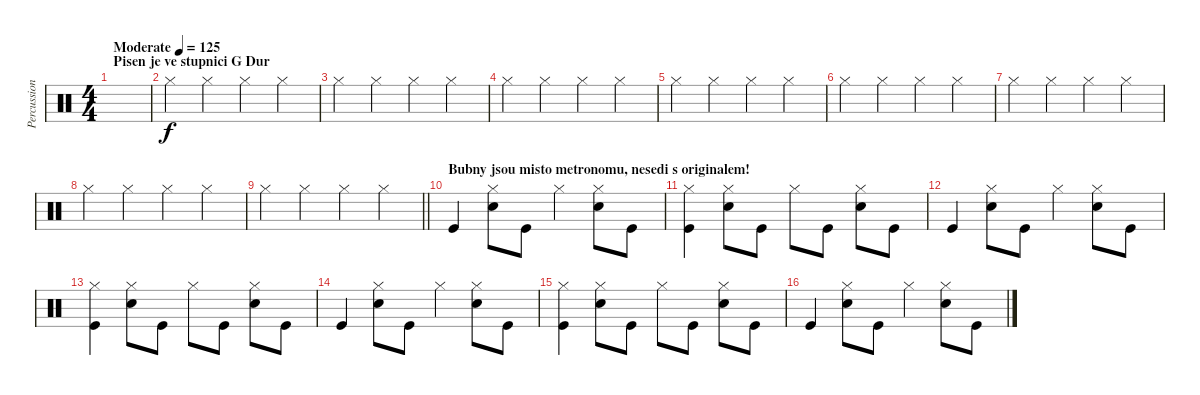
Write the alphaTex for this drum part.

\track ("Percussion" "Percussion") {instrument percussion}
\staff {score}
\articulation defaults
\ts (4 4)
\section ("" "Pisen je ve stupnici G Dur")
\tempo (125 "Moderate")
\clef neutral
\ks c
|
"Hi-Hat (closed)".4 "Hi-Hat (closed)".4 "Hi-Hat (closed)".4 "Hi-Hat (closed)".4 |
"Hi-Hat (closed)".4 "Hi-Hat (closed)".4 "Hi-Hat (closed)".4 "Hi-Hat (closed)".4 |
"Hi-Hat (closed)".4 "Hi-Hat (closed)".4 "Hi-Hat (closed)".4 "Hi-Hat (closed)".4 |
"Hi-Hat (closed)".4 "Hi-Hat (closed)".4 "Hi-Hat (closed)".4 "Hi-Hat (closed)".4 |
"Hi-Hat (closed)".4 "Hi-Hat (closed)".4 "Hi-Hat (closed)".4 "Hi-Hat (closed)".4 |
"Hi-Hat (closed)".4 "Hi-Hat (closed)".4 "Hi-Hat (closed)".4 "Hi-Hat (closed)".4 |
"Hi-Hat (closed)".4 "Hi-Hat (closed)".4 "Hi-Hat (closed)".4 "Hi-Hat (closed)".4 |
\barLineRight lightlight "Hi-Hat (closed)".4 "Hi-Hat (closed)".4 "Hi-Hat (closed)".4 "Hi-Hat (closed)".4
|
\section ("" "Bubny jsou misto metronomu, nesedi s originalem!")
"Kick (hit)".4 ("Hi-Hat (closed)" "Snare (hit) 2").8 "Kick (hit)".8 "Hi-Hat (closed)".4 ("Hi-Hat (closed)" "Snare (hit) 2").8 "Kick (hit)".8 |
("Hi-Hat (closed)" "Kick (hit)").4 ("Hi-Hat (closed)" "Snare (hit) 2").8 "Kick (hit)".8 "Hi-Hat (closed)".8 "Kick (hit)".8 ("Hi-Hat (closed)" "Snare (hit) 2").8 "Kick (hit)".8 |
"Kick (hit)".4 ("Hi-Hat (closed)" "Snare (hit) 2").8 "Kick (hit)".8 "Hi-Hat (closed)".4 ("Hi-Hat (closed)" "Snare (hit) 2").8 "Kick (hit)".8 |
("Hi-Hat (closed)" "Kick (hit)").4 ("Hi-Hat (closed)" "Snare (hit) 2").8 "Kick (hit)".8 "Hi-Hat (closed)".8 "Kick (hit)".8 ("Hi-Hat (closed)" "Snare (hit) 2").8 "Kick (hit)".8 |
"Kick (hit)".4 ("Hi-Hat (closed)" "Snare (hit) 2").8 "Kick (hit)".8 "Hi-Hat (closed)".4 ("Hi-Hat (closed)" "Snare (hit) 2").8 "Kick (hit)".8 |
("Hi-Hat (closed)" "Kick (hit)").4 ("Hi-Hat (closed)" "Snare (hit) 2").8 "Kick (hit)".8 "Hi-Hat (closed)".8 "Kick (hit)".8 ("Hi-Hat (closed)" "Snare (hit) 2").8 "Kick (hit)".8 |
"Kick (hit)".4 ("Hi-Hat (closed)" "Snare (hit) 2").8 "Kick (hit)".8 "Hi-Hat (closed)".4 ("Hi-Hat (closed)" "Snare (hit) 2").8 "Kick (hit)".8
